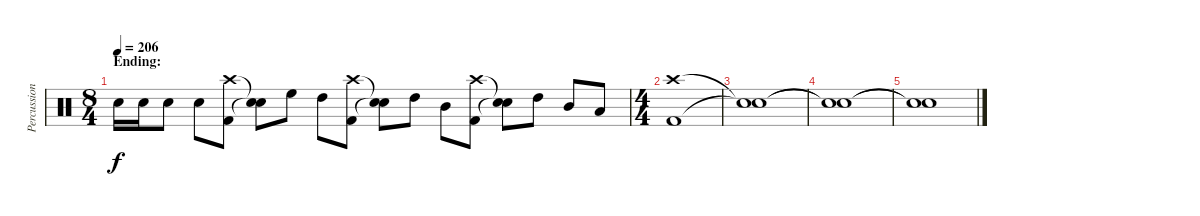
\track ("Percussion" "Percussion") {instrument percussion}
\staff {score}
\articulation defaults
\ts (8 4)
\section ("" "Ending:")
\tempo 206
\clef neutral
\ks c "Snare (hit) 2".16{dy f} "Snare (hit) 2".16 "Snare (hit) 2".8 "Snare (hit) 2".8
("Crash high (hit)" "Kick (hit) 2").8 ("Snare (hit)"{t} "Snare (hit)"{t}).8 "High Floor Tom (hit)".8 "High Tom (hit)".8 ("Crash high (hit)" "Kick (hit) 2").8 ("Snare (hit)"{t} "Snare (hit)"{t}).8 "High Tom (hit)".8 "Mid Tom (hit)".8 ("Crash high (hit)" "Kick (hit) 2").8 ("Snare (hit)"{t} "Snare (hit)"{t}).8 "High Tom (hit)".8 "Mid Tom (hit)".8 "Low Tom (hit)".8 |
\ts (4 4)
("Crash high (hit)" "Kick (hit) 2").1 |
("Snare (hit)"{t} "Snare (hit)"{t}).1 |
("Snare (hit)"{t} "Snare (hit)"{t}).1 |
("Snare (hit)"{t} "Snare (hit)"{t}).1
